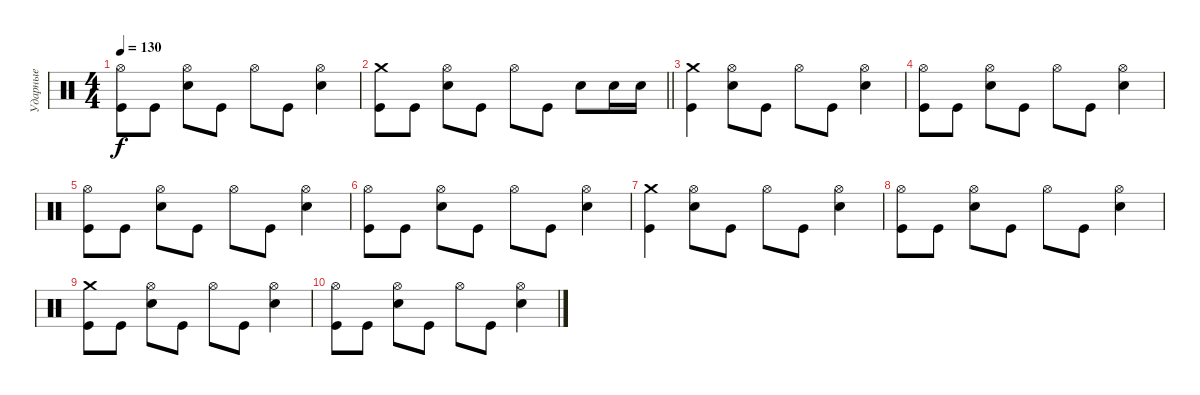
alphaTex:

\track ("Ударные" "Ударные") {instrument percussion}
\staff {score}
\articulation defaults
\ts (4 4)
\tempo 130
\clef neutral
\ks c
("Hi-Hat (open)" "Kick (hit)").8{dy f} "Kick (hit)".8 ("Hi-Hat (open)" "Electric Snare (hit)").8 "Kick (hit)".8 "Hi-Hat (open)".8 "Kick (hit)".8 ("Hi-Hat (open)" "Electric Snare (hit)").4 |
\barLineRight lightlight
("Crash medium (hit)" "Kick (hit)").8 "Kick (hit)".8 ("Hi-Hat (open)" "Electric Snare (hit)").8 "Kick (hit)".8 "Hi-Hat (open)".8 "Kick (hit)".8 "Electric Snare (hit)".8 "Electric Snare (hit)".16 "Electric Snare (hit)".16 |
\section ("" " ")
("Crash medium (hit)" "Kick (hit)").4 ("Hi-Hat (open)" "Electric Snare (hit)").8 "Kick (hit)".8 "Hi-Hat (open)".8 "Kick (hit)".8 ("Hi-Hat (open)" "Electric Snare (hit)").4 |
("Hi-Hat (open)" "Kick (hit)").8 "Kick (hit)".8 ("Hi-Hat (open)" "Electric Snare (hit)").8 "Kick (hit)".8 "Hi-Hat (open)".8 "Kick (hit)".8 ("Hi-Hat (open)" "Electric Snare (hit)").4 |
("Hi-Hat (open)" "Kick (hit)").8 "Kick (hit)".8 ("Hi-Hat (open)" "Electric Snare (hit)").8 "Kick (hit)".8 "Hi-Hat (open)".8 "Kick (hit)".8 ("Hi-Hat (open)" "Electric Snare (hit)").4 |
("Hi-Hat (open)" "Kick (hit)").8 "Kick (hit)".8 ("Hi-Hat (open)" "Electric Snare (hit)").8 "Kick (hit)".8 "Hi-Hat (open)".8 "Kick (hit)".8 ("Hi-Hat (open)" "Electric Snare (hit)").4 |
("Crash medium (hit)" "Kick (hit)").4 ("Hi-Hat (open)" "Electric Snare (hit)").8 "Kick (hit)".8 "Hi-Hat (open)".8 "Kick (hit)".8 ("Hi-Hat (open)" "Electric Snare (hit)").4 |
("Hi-Hat (open)" "Kick (hit)").8 "Kick (hit)".8 ("Hi-Hat (open)" "Electric Snare (hit)").8 "Kick (hit)".8 "Hi-Hat (open)".8 "Kick (hit)".8 ("Hi-Hat (open)" "Electric Snare (hit)").4 |
("Crash medium (hit)" "Kick (hit)").8 "Kick (hit)".8 ("Hi-Hat (open)" "Electric Snare (hit)").8 "Kick (hit)".8 "Hi-Hat (open)".8 "Kick (hit)".8 ("Hi-Hat (open)" "Electric Snare (hit)").4 |
("Hi-Hat (open)" "Kick (hit)").8 "Kick (hit)".8 ("Hi-Hat (open)" "Electric Snare (hit)").8 "Kick (hit)".8 "Hi-Hat (open)".8 "Kick (hit)".8 ("Hi-Hat (open)" "Electric Snare (hit)").4
